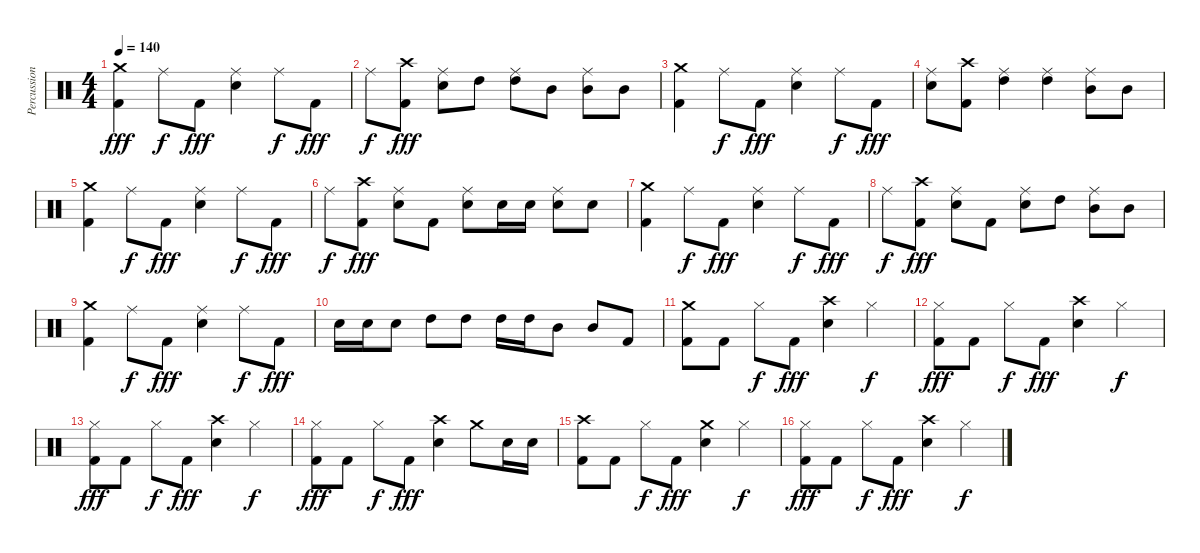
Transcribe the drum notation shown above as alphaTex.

\track ("Percussion" "Percussion") {instrument percussion}
\staff {score}
\articulation defaults
\ts (4 4)
\tempo 140
\clef neutral
\ks c
("Crash medium (hit)" "Kick (hit) 2").4{dy fff} "Ride (middle)".8{dy f} "Kick (hit) 2".8{dy fff} ("Ride (middle)" "Electric Snare (hit)").4 "Ride (middle)".8{dy f} "Kick (hit) 2".8{dy fff} |
"Ride (middle)".8{dy f} ("Crash high (hit)" "Kick (hit) 2").8{dy fff} ("Ride (middle)" "Electric Snare (hit)").8 "High Tom (hit)".8 ("Ride (middle)" "High Tom (hit)").8 "Mid Tom (hit)".8 ("Ride (middle)" "Mid Tom (hit)").8 "Mid Tom (hit)".8 |
("Crash medium (hit)" "Kick (hit) 2").4 "Ride (middle)".8{dy f} "Kick (hit) 2".8{dy fff} ("Ride (middle)" "Electric Snare (hit)").4 "Ride (middle)".8{dy f} "Kick (hit) 2".8{dy fff} |
("Ride (middle)" "Electric Snare (hit)").8 ("Crash high (hit)" "Kick (hit) 2").8 ("Ride (middle)" "High Tom (hit)").4 ("Ride (middle)" "High Tom (hit)").4 ("Ride (middle)" "Mid Tom (hit)").8 "Mid Tom (hit)".8 |
("Crash medium (hit)" "Kick (hit) 2").4 "Ride (middle)".8{dy f} "Kick (hit) 2".8{dy fff} ("Ride (middle)" "Electric Snare (hit)").4 "Ride (middle)".8{dy f} "Kick (hit) 2".8{dy fff} |
"Ride (middle)".8{dy f} ("Crash high (hit)" "Kick (hit) 2").8{dy fff} ("Ride (middle)" "Electric Snare (hit)").8 "Kick (hit) 2".8 ("Ride (middle)" "Electric Snare (hit)").8 "Electric Snare (hit)".16 "Electric Snare (hit)".16 ("Ride (middle)" "Electric Snare (hit)").8 "Electric Snare (hit)".8 |
("Crash medium (hit)" "Kick (hit) 2").4 "Ride (middle)".8{dy f} "Kick (hit) 2".8{dy fff} ("Ride (middle)" "Electric Snare (hit)").4 "Ride (middle)".8{dy f} "Kick (hit) 2".8{dy fff} |
"Ride (middle)".8{dy f} ("Crash high (hit)" "Kick (hit) 2").8{dy fff} ("Ride (middle)" "Electric Snare (hit)").8 "Kick (hit) 2".8 ("Ride (middle)" "Electric Snare (hit)").8 "High Tom (hit)".8 ("Ride (middle)" "Mid Tom (hit)").8 "Mid Tom (hit)".8 |
("Crash medium (hit)" "Kick (hit) 2").4 "Ride (middle)".8{dy f} "Kick (hit) 2".8{dy fff} ("Ride (middle)" "Electric Snare (hit)").4 "Ride (middle)".8{dy f} "Kick (hit) 2".8{dy fff} |
"Electric Snare (hit)".16 "Electric Snare (hit)".16 "Electric Snare (hit)".8 "High Tom (hit)".8 "High Tom (hit)".8 "High Tom (hit)".16 "High Tom (hit)".16 "Mid Tom (hit)".8 "Mid Tom (hit)".8 "Kick (hit) 2".8 |
("Crash medium (hit)" "Kick (hit) 2").8 "Kick (hit) 2".8 "Hi-Hat (closed)".8{dy f} "Kick (hit) 2".8{dy fff} ("Crash high (hit)" "Electric Snare (hit)").4 "Hi-Hat (closed)".4{dy f} |
("Hi-Hat (closed)" "Kick (hit) 2").8{dy fff} "Kick (hit) 2".8 "Hi-Hat (closed)".8{dy f} "Kick (hit) 2".8{dy fff} ("Crash high (hit)" "Electric Snare (hit)").4 "Hi-Hat (closed)".4{dy f} |
("Hi-Hat (closed)" "Kick (hit) 2").8{dy fff} "Kick (hit) 2".8 "Hi-Hat (closed)".8{dy f} "Kick (hit) 2".8{dy fff} ("Crash high (hit)" "Electric Snare (hit)").4 "Hi-Hat (closed)".4{dy f} |
("Hi-Hat (closed)" "Kick (hit) 2").8{dy fff} "Kick (hit) 2".8 "Hi-Hat (closed)".8{dy f} "Kick (hit) 2".8{dy fff} ("Crash high (hit)" "Electric Snare (hit)").4 "Crash medium (hit)".8 "Electric Snare (hit)".16 "Electric Snare (hit)".16 |
("Crash high (hit)" "Kick (hit) 2").8 "Kick (hit) 2".8 "Hi-Hat (closed)".8{dy f} "Kick (hit) 2".8{dy fff} ("Crash medium (hit)" "Electric Snare (hit)").4 "Hi-Hat (closed)".4{dy f} |
("Hi-Hat (closed)" "Kick (hit) 2").8{dy fff} "Kick (hit) 2".8 "Hi-Hat (closed)".8{dy f} "Kick (hit) 2".8{dy fff} ("Crash high (hit)" "Electric Snare (hit)").4 "Hi-Hat (closed)".4{dy f}
